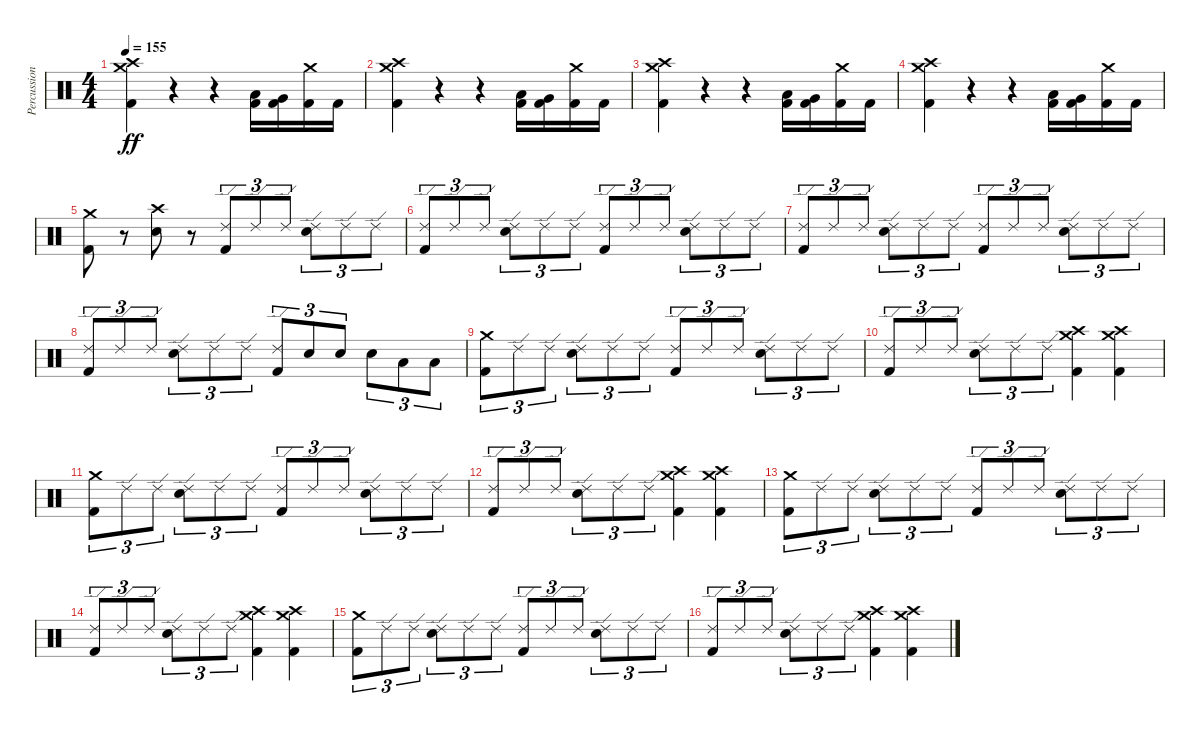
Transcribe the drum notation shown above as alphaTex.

\track ("Percussion" "Percussion") {instrument percussion}
\staff {score}
\articulation defaults
\ts (4 4)
\tempo 155
\clef neutral
\ks c
("Kick (hit) 2" "Crash medium (hit)" "Crash high (hit)").4{dy ff} r.4 r.4 ("Kick (hit) 2" "Low Tom (hit)").16 ("Kick (hit) 2" "Very Low Tom (hit)").16 ("Kick (hit) 2" "Crash medium (hit)").16 "Kick (hit) 2".16 |
("Kick (hit) 2" "Crash medium (hit)" "Crash high (hit)").4 r.4 r.4 ("Kick (hit) 2" "Low Tom (hit)").16 ("Kick (hit) 2" "Very Low Tom (hit)").16 ("Kick (hit) 2" "Crash medium (hit)").16 "Kick (hit) 2".16 |
("Kick (hit) 2" "Crash medium (hit)" "Crash high (hit)").4 r.4 r.4 ("Kick (hit) 2" "Low Tom (hit)").16 ("Kick (hit) 2" "Very Low Tom (hit)").16 ("Kick (hit) 2" "Crash medium (hit)").16 "Kick (hit) 2".16 |
("Kick (hit) 2" "Crash medium (hit)" "Crash high (hit)").4 r.4 r.4 ("Kick (hit) 2" "Low Tom (hit)").16 ("Kick (hit) 2" "Very Low Tom (hit)").16 ("Kick (hit) 2" "Crash medium (hit)").16 "Kick (hit) 2".16 |
("Kick (hit) 2" "Crash medium (hit)").8 r.8 ("Electric Snare (hit)" "Crash high (hit)").8 r.8 ("Kick (hit) 2" "Ride (edge) 2").8{tu (3 2)} "Ride (edge) 2".8{tu (3 2)} "Ride (edge) 2".8{tu (3 2)} ("Electric Snare (hit)" "Ride (edge) 2").8{tu (3 2)} "Ride (edge) 2".8{tu (3 2)} "Ride (edge) 2".8{tu (3 2)} |
("Kick (hit) 2" "Ride (edge) 2").8{tu (3 2)} "Ride (edge) 2".8{tu (3 2)} "Ride (edge) 2".8{tu (3 2)} ("Electric Snare (hit)" "Ride (edge) 2").8{tu (3 2)} "Ride (edge) 2".8{tu (3 2)} "Ride (edge) 2".8{tu (3 2)} ("Kick (hit) 2" "Ride (edge) 2").8{tu (3 2)} "Ride (edge) 2".8{tu (3 2)} "Ride (edge) 2".8{tu (3 2)} ("Electric Snare (hit)" "Ride (edge) 2").8{tu (3 2)} "Ride (edge) 2".8{tu (3 2)} "Ride (edge) 2".8{tu (3 2)} |
("Kick (hit) 2" "Ride (edge) 2").8{tu (3 2)} "Ride (edge) 2".8{tu (3 2)} "Ride (edge) 2".8{tu (3 2)} ("Electric Snare (hit)" "Ride (edge) 2").8{tu (3 2)} "Ride (edge) 2".8{tu (3 2)} "Ride (edge) 2".8{tu (3 2)} ("Kick (hit) 2" "Ride (edge) 2").8{tu (3 2)} "Ride (edge) 2".8{tu (3 2)} "Ride (edge) 2".8{tu (3 2)} ("Electric Snare (hit)" "Ride (edge) 2").8{tu (3 2)} "Ride (edge) 2".8{tu (3 2)} "Ride (edge) 2".8{tu (3 2)} |
("Kick (hit) 2" "Ride (edge) 2").8{tu (3 2)} "Ride (edge) 2".8{tu (3 2)} "Ride (edge) 2".8{tu (3 2)} ("Electric Snare (hit)" "Ride (edge) 2").8{tu (3 2)} "Ride (edge) 2".8{tu (3 2)} "Ride (edge) 2".8{tu (3 2)} ("Kick (hit) 2" "Ride (edge) 2").8{tu (3 2)} "Electric Snare (hit)".8{tu (3 2)} "Electric Snare (hit)".8{tu (3 2)} "Electric Snare (hit)".8{tu (3 2)} "Low Tom (hit)".8{tu (3 2)} "Low Tom (hit)".8{tu (3 2)} |
("Kick (hit) 2" "Crash medium (hit)").8{tu (3 2)} "Ride (edge) 2".8{tu (3 2)} "Ride (edge) 2".8{tu (3 2)} ("Electric Snare (hit)" "Ride (edge) 2").8{tu (3 2)} "Ride (edge) 2".8{tu (3 2)} "Ride (edge) 2".8{tu (3 2)} ("Kick (hit) 2" "Ride (edge) 2").8{tu (3 2)} "Ride (edge) 2".8{tu (3 2)} "Ride (edge) 2".8{tu (3 2)} ("Electric Snare (hit)" "Ride (edge) 2").8{tu (3 2)} "Ride (edge) 2".8{tu (3 2)} "Ride (edge) 2".8{tu (3 2)} |
("Kick (hit) 2" "Ride (edge) 2").8{tu (3 2)} "Ride (edge) 2".8{tu (3 2)} "Ride (edge) 2".8{tu (3 2)} ("Electric Snare (hit)" "Ride (edge) 2").8{tu (3 2)} "Ride (edge) 2".8{tu (3 2)} "Ride (edge) 2".8{tu (3 2)} ("Kick (hit) 2" "Crash medium (hit)" "Crash high (hit)").4 ("Kick (hit) 2" "Crash medium (hit)" "Crash high (hit)").4 |
("Kick (hit) 2" "Crash medium (hit)").8{tu (3 2)} "Ride (edge) 2".8{tu (3 2)} "Ride (edge) 2".8{tu (3 2)} ("Electric Snare (hit)" "Ride (edge) 2").8{tu (3 2)} "Ride (edge) 2".8{tu (3 2)} "Ride (edge) 2".8{tu (3 2)} ("Kick (hit) 2" "Ride (edge) 2").8{tu (3 2)} "Ride (edge) 2".8{tu (3 2)} "Ride (edge) 2".8{tu (3 2)} ("Electric Snare (hit)" "Ride (edge) 2").8{tu (3 2)} "Ride (edge) 2".8{tu (3 2)} "Ride (edge) 2".8{tu (3 2)} |
("Kick (hit) 2" "Ride (edge) 2").8{tu (3 2)} "Ride (edge) 2".8{tu (3 2)} "Ride (edge) 2".8{tu (3 2)} ("Electric Snare (hit)" "Ride (edge) 2").8{tu (3 2)} "Ride (edge) 2".8{tu (3 2)} "Ride (edge) 2".8{tu (3 2)} ("Kick (hit) 2" "Crash medium (hit)" "Crash high (hit)").4 ("Kick (hit) 2" "Crash medium (hit)" "Crash high (hit)").4 |
("Kick (hit) 2" "Crash medium (hit)").8{tu (3 2)} "Ride (edge) 2".8{tu (3 2)} "Ride (edge) 2".8{tu (3 2)} ("Electric Snare (hit)" "Ride (edge) 2").8{tu (3 2)} "Ride (edge) 2".8{tu (3 2)} "Ride (edge) 2".8{tu (3 2)} ("Kick (hit) 2" "Ride (edge) 2").8{tu (3 2)} "Ride (edge) 2".8{tu (3 2)} "Ride (edge) 2".8{tu (3 2)} ("Electric Snare (hit)" "Ride (edge) 2").8{tu (3 2)} "Ride (edge) 2".8{tu (3 2)} "Ride (edge) 2".8{tu (3 2)} |
("Kick (hit) 2" "Ride (edge) 2").8{tu (3 2)} "Ride (edge) 2".8{tu (3 2)} "Ride (edge) 2".8{tu (3 2)} ("Electric Snare (hit)" "Ride (edge) 2").8{tu (3 2)} "Ride (edge) 2".8{tu (3 2)} "Ride (edge) 2".8{tu (3 2)} ("Kick (hit) 2" "Crash medium (hit)" "Crash high (hit)").4 ("Kick (hit) 2" "Crash medium (hit)" "Crash high (hit)").4 |
("Kick (hit) 2" "Crash medium (hit)").8{tu (3 2)} "Ride (edge) 2".8{tu (3 2)} "Ride (edge) 2".8{tu (3 2)} ("Electric Snare (hit)" "Ride (edge) 2").8{tu (3 2)} "Ride (edge) 2".8{tu (3 2)} "Ride (edge) 2".8{tu (3 2)} ("Kick (hit) 2" "Ride (edge) 2").8{tu (3 2)} "Ride (edge) 2".8{tu (3 2)} "Ride (edge) 2".8{tu (3 2)} ("Electric Snare (hit)" "Ride (edge) 2").8{tu (3 2)} "Ride (edge) 2".8{tu (3 2)} "Ride (edge) 2".8{tu (3 2)} |
("Kick (hit) 2" "Ride (edge) 2").8{tu (3 2)} "Ride (edge) 2".8{tu (3 2)} "Ride (edge) 2".8{tu (3 2)} ("Electric Snare (hit)" "Ride (edge) 2").8{tu (3 2)} "Ride (edge) 2".8{tu (3 2)} "Ride (edge) 2".8{tu (3 2)} ("Kick (hit) 2" "Crash medium (hit)" "Crash high (hit)").4 ("Kick (hit) 2" "Crash medium (hit)" "Crash high (hit)").4
